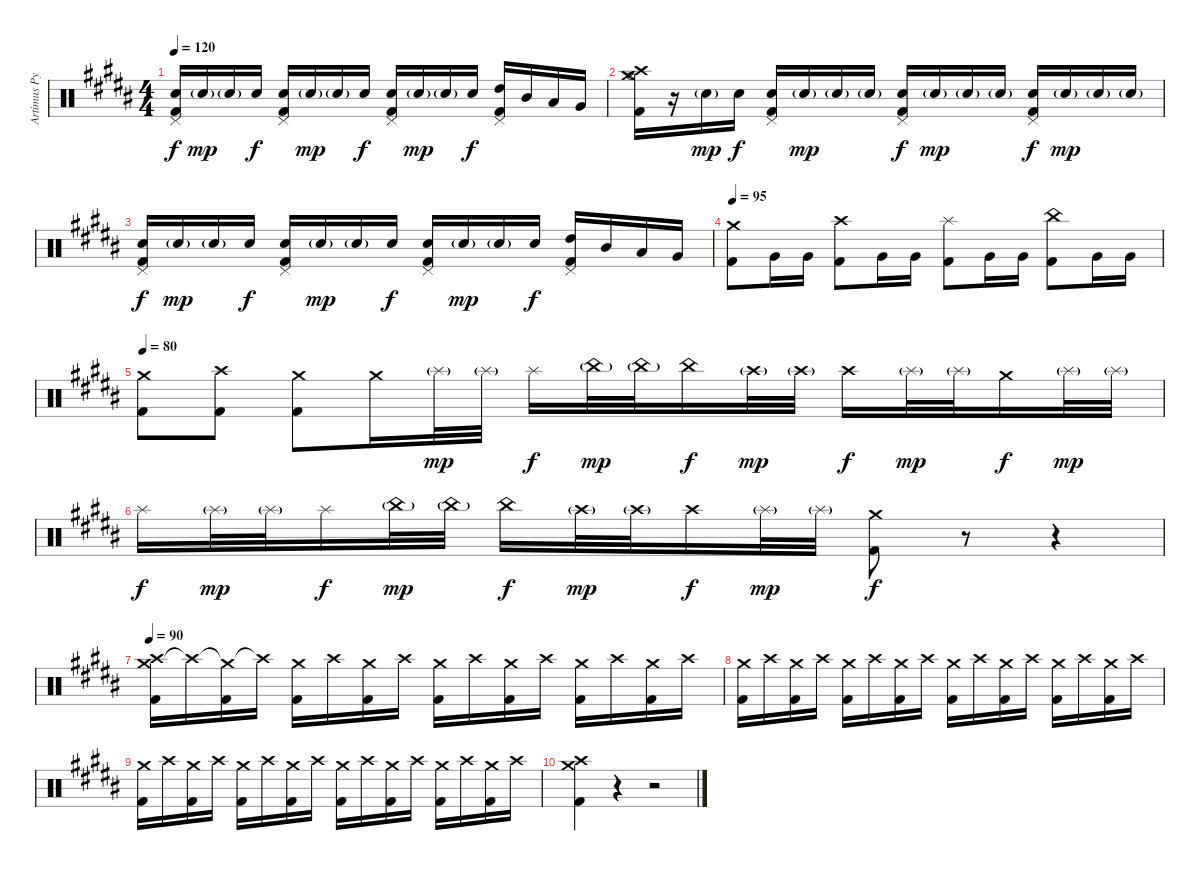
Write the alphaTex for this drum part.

\track ("Artimus Pyle - Drums" "Artimus Py") {instrument percussion}
\staff {score}
\articulation defaults
\ts (4 4)
\tempo 120
\clef neutral
\ks b
("Snare (hit) 2" "Pedal Hi-Hat (hit)" "Kick (hit) 2").16{dy f} "Snare (hit) 2"{g}.16{dy mp} "Snare (hit) 2"{g}.16 "Snare (hit) 2".16{dy f} ("Snare (hit) 2" "Pedal Hi-Hat (hit)" "Kick (hit) 2").16 "Snare (hit) 2"{g}.16{dy mp} "Snare (hit) 2"{g}.16 "Snare (hit) 2".16{dy f} ("Snare (hit) 2" "Pedal Hi-Hat (hit)" "Kick (hit) 2").16 "Snare (hit) 2"{g}.16{dy mp} "Snare (hit) 2"{g}.16 "Snare (hit) 2".16{dy f} ("High Tom (hit)" "Pedal Hi-Hat (hit)" "Kick (hit) 2").16 "Mid Tom (hit)".16 "Low Tom (hit)".16 "Very Low Tom (hit)".16 |
("Crash high (hit)" "Crash medium (hit)" "Hi-Hat (open)" "Kick (hit) 2").16 r.16 "Snare (hit) 2"{g}.16{dy mp} "Snare (hit) 2".16{dy f} ("Snare (hit) 2" "Pedal Hi-Hat (hit)" "Kick (hit) 2").16 "Snare (hit) 2"{g}.16{dy mp} "Snare (hit) 2"{g}.16 "Snare (hit) 2"{g}.16 ("Snare (hit) 2" "Pedal Hi-Hat (hit)" "Kick (hit) 2").16{dy f} "Snare (hit) 2"{g}.16{dy mp} "Snare (hit) 2"{g}.16 "Snare (hit) 2"{g}.16 ("Snare (hit) 2" "Pedal Hi-Hat (hit)" "Kick (hit) 2").16{dy f} "Snare (hit) 2"{g}.16{dy mp} "Snare (hit) 2"{g}.16 "Snare (hit) 2"{g}.16 |
("Snare (hit) 2" "Pedal Hi-Hat (hit)" "Kick (hit) 2").16{dy f} "Snare (hit) 2"{g}.16{dy mp} "Snare (hit) 2"{g}.16 "Snare (hit) 2".16{dy f} ("Snare (hit) 2" "Pedal Hi-Hat (hit)" "Kick (hit) 2").16 "Snare (hit) 2"{g}.16{dy mp} "Snare (hit) 2"{g}.16 "Snare (hit) 2".16{dy f} ("Snare (hit) 2" "Pedal Hi-Hat (hit)" "Kick (hit) 2").16 "Snare (hit) 2"{g}.16{dy mp} "Snare (hit) 2"{g}.16 "Snare (hit) 2".16{dy f} ("High Tom (hit)" "Pedal Hi-Hat (hit)" "Kick (hit) 2").16 "Mid Tom (hit)".16 "Low Tom (hit)".16 "Very Low Tom (hit)".16 |
\tempo 95
("Crash medium (hit)" "Kick (hit) 2").8 "Very Low Tom (hit)".16 "Very Low Tom (hit)".16 ("Crash high (hit)" "Kick (hit) 2").8 "Very Low Tom (hit)".16 "Very Low Tom (hit)".16 ("Splash (hit)" "Kick (hit) 2").8 "Very Low Tom (hit)".16 "Very Low Tom (hit)".16 ("China (hit)" "Kick (hit) 2").8 "Very Low Tom (hit)".16 "Very Low Tom (hit)".16 |
\tempo 80
("Crash medium (hit)" "Kick (hit) 2").8 ("Crash high (hit)" "Kick (hit) 2").8 ("Crash medium (hit)" "Kick (hit) 2").8 "Crash medium (hit)".16 "Splash (hit)"{g}.32{dy mp} "Splash (hit)"{g}.32 "Splash (hit)".16{dy f} "China (hit)"{g}.32{dy mp} "China (hit)"{g}.32 "China (hit)".16{dy f} "Crash high (hit)"{g}.32{dy mp} "Crash high (hit)"{g}.32 "Crash high (hit)".16{dy f} "Splash (hit)"{g}.32{dy mp} "Splash (hit)"{g}.32 "Crash medium (hit)".16{dy f} "Splash (hit)"{g}.32{dy mp} "Splash (hit)"{g}.32 |
"Splash (hit)".16{dy f} "Splash (hit)"{g}.32{dy mp} "Splash (hit)"{g}.32 "Splash (hit)".16{dy f} "China (hit)"{g}.32{dy mp} "China (hit)"{g}.32 "China (hit)".16{dy f} "Crash high (hit)"{g}.32{dy mp} "Crash high (hit)"{g}.32 "Crash high (hit)".16{dy f} "Splash (hit)"{g}.32{dy mp} "Splash (hit)"{g}.32 ("Crash medium (hit)" "Kick (hit) 2").8{dy f} r.8 r.4 |
\tempo 90
("Crash medium (hit)" "Crash high (hit)" "Kick (hit) 2").16 "Crash high (hit)"{t}.16 ("Crash medium (hit)"{t} "Kick (hit) 2").16 "Crash high (hit)"{t}.16 ("Crash medium (hit)" "Kick (hit) 2").16 "Crash high (hit)".16 ("Crash medium (hit)" "Kick (hit) 2").16 "Crash high (hit)".16 ("Crash medium (hit)" "Kick (hit) 2").16 "Crash high (hit)".16 ("Crash medium (hit)" "Kick (hit) 2").16 "Crash high (hit)".16 ("Crash medium (hit)" "Kick (hit) 2").16 "Crash high (hit)".16 ("Crash medium (hit)" "Kick (hit) 2").16 "Crash high (hit)".16 |
("Crash medium (hit)" "Kick (hit) 2").16 "Crash high (hit)".16 ("Crash medium (hit)" "Kick (hit) 2").16 "Crash high (hit)".16 ("Crash medium (hit)" "Kick (hit) 2").16 "Crash high (hit)".16 ("Crash medium (hit)" "Kick (hit) 2").16 "Crash high (hit)".16 ("Crash medium (hit)" "Kick (hit) 2").16 "Crash high (hit)".16 ("Crash medium (hit)" "Kick (hit) 2").16 "Crash high (hit)".16 ("Crash medium (hit)" "Kick (hit) 2").16 "Crash high (hit)".16 ("Crash medium (hit)" "Kick (hit) 2").16 "Crash high (hit)".16 |
("Crash medium (hit)" "Kick (hit) 2").16 "Crash high (hit)".16 ("Crash medium (hit)" "Kick (hit) 2").16 "Crash high (hit)".16 ("Crash medium (hit)" "Kick (hit) 2").16 "Crash high (hit)".16 ("Crash medium (hit)" "Kick (hit) 2").16 "Crash high (hit)".16 ("Crash medium (hit)" "Kick (hit) 2").16 "Crash high (hit)".16 ("Crash medium (hit)" "Kick (hit) 2").16 "Crash high (hit)".16 ("Crash medium (hit)" "Kick (hit) 2").16 "Crash high (hit)".16 ("Crash medium (hit)" "Kick (hit) 2").16 "Crash high (hit)".16 |
("Crash medium (hit)" "Crash high (hit)" "Kick (hit) 2").4 r.4 r.2
